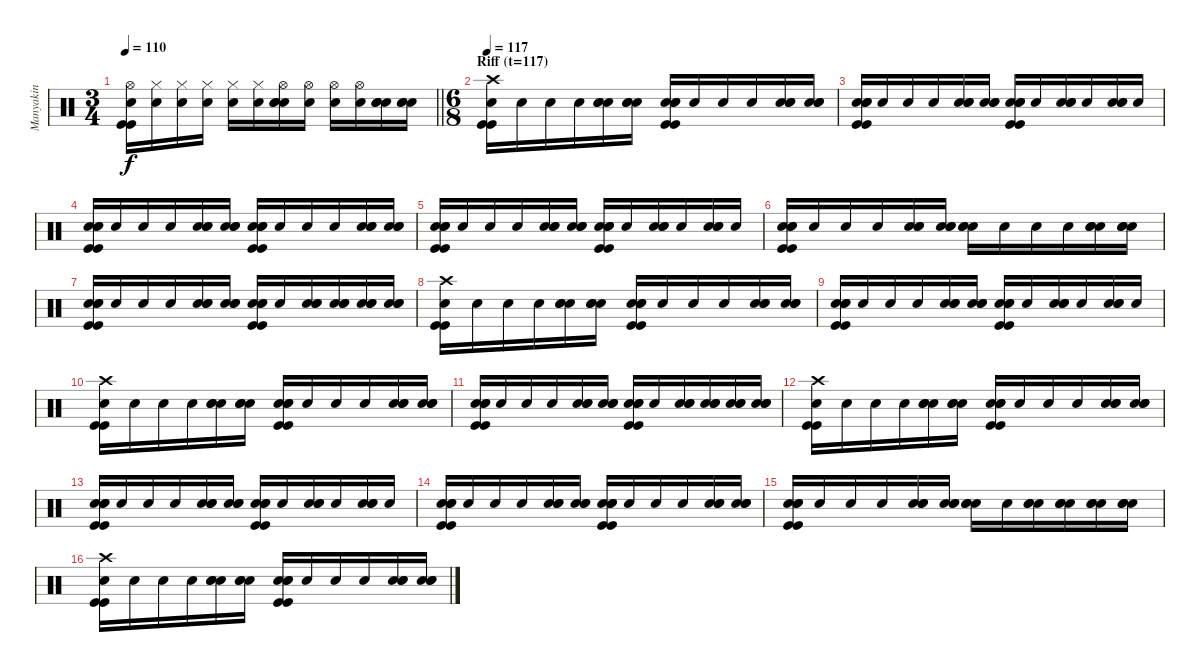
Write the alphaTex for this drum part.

\track ("Manyakin" "Manyakin") {instrument percussion}
\staff {score}
\articulation defaults
\ts (3 4)
\tempo 110
\clef neutral
\barLineRight lightlight
\ks c
("Hi-Hat (open)" "Kick (hit)" "Kick (hit)" "Snare (hit)"{x}).16{dy f} ("Hi-Hat (closed)" "Snare (hit)"{x}).16 ("Hi-Hat (closed)" "Snare (hit)"{x}).16 ("Hi-Hat (closed)" "Snare (hit)"{x}).16 ("Hi-Hat (closed)" "Snare (hit)"{x}).16 ("Hi-Hat (closed)" "Snare (hit)"{x}).16 ("Hi-Hat (open)" "Electric Snare (hit)" "Electric Snare (hit)" "Snare (hit)"{x}).16 ("Hi-Hat (open)" "Snare (hit)"{x}).16 ("Hi-Hat (open)" "Snare (hit)"{x}).16 ("Hi-Hat (open)" "Snare (hit)"{x}).16 ("Electric Snare (hit)" "Electric Snare (hit)" "Snare (hit)"{x}).16 ("Electric Snare (hit)" "Electric Snare (hit)" "Snare (hit)"{x}).16 |
\ts (6 8)
\section ("" "Riff (t=117)")
\tempo 117
("Crash high (hit)" "Kick (hit)" "Kick (hit)" "Snare (hit)"{x}).16 "Snare (hit)"{x}.16 "Snare (hit)"{x}.16 "Snare (hit)"{x}.16 ("Electric Snare (hit)" "Electric Snare (hit)" "Snare (hit)"{x}).16 ("Electric Snare (hit)" "Electric Snare (hit)" "Snare (hit)"{x}).16 ("Kick (hit)" "Kick (hit)" "Electric Snare (hit)" "Electric Snare (hit)" "Snare (hit)"{x}).16 "Snare (hit)"{x}.16 "Snare (hit)"{x}.16 "Snare (hit)"{x}.16 ("Electric Snare (hit)" "Electric Snare (hit)" "Snare (hit)"{x}).16 ("Electric Snare (hit)" "Electric Snare (hit)" "Snare (hit)"{x}).16 |
("Kick (hit)" "Kick (hit)" "Electric Snare (hit)" "Electric Snare (hit)" "Snare (hit)"{x}).16 "Snare (hit)"{x}.16 "Snare (hit)"{x}.16 "Snare (hit)"{x}.16 ("Electric Snare (hit)" "Electric Snare (hit)" "Snare (hit)"{x}).16 ("Electric Snare (hit)" "Electric Snare (hit)" "Snare (hit)"{x}).16 ("Kick (hit)" "Kick (hit)" "Electric Snare (hit)" "Electric Snare (hit)" "Snare (hit)"{x}).16 "Snare (hit)"{x}.16 ("Electric Snare (hit)" "Electric Snare (hit)" "Snare (hit)"{x}).16 "Snare (hit)"{x}.16 ("Electric Snare (hit)" "Electric Snare (hit)" "Snare (hit)"{x}).16 "Snare (hit)"{x}.16 |
("Kick (hit)" "Kick (hit)" "Electric Snare (hit)" "Electric Snare (hit)" "Snare (hit)"{x}).16 "Snare (hit)"{x}.16 "Snare (hit)"{x}.16 "Snare (hit)"{x}.16 ("Electric Snare (hit)" "Electric Snare (hit)" "Snare (hit)"{x}).16 ("Electric Snare (hit)" "Electric Snare (hit)" "Snare (hit)"{x}).16 ("Kick (hit)" "Kick (hit)" "Electric Snare (hit)" "Electric Snare (hit)" "Snare (hit)"{x}).16 "Snare (hit)"{x}.16 "Snare (hit)"{x}.16 "Snare (hit)"{x}.16 ("Electric Snare (hit)" "Electric Snare (hit)" "Snare (hit)"{x}).16 ("Electric Snare (hit)" "Electric Snare (hit)" "Snare (hit)"{x}).16 |
("Kick (hit)" "Kick (hit)" "Electric Snare (hit)" "Electric Snare (hit)" "Snare (hit)"{x}).16 "Snare (hit)"{x}.16 "Snare (hit)"{x}.16 "Snare (hit)"{x}.16 ("Electric Snare (hit)" "Electric Snare (hit)" "Snare (hit)"{x}).16 ("Electric Snare (hit)" "Electric Snare (hit)" "Snare (hit)"{x}).16 ("Kick (hit)" "Kick (hit)" "Electric Snare (hit)" "Electric Snare (hit)" "Snare (hit)"{x}).16 "Snare (hit)"{x}.16 ("Electric Snare (hit)" "Electric Snare (hit)" "Snare (hit)"{x}).16 "Snare (hit)"{x}.16 ("Electric Snare (hit)" "Electric Snare (hit)" "Snare (hit)"{x}).16 "Snare (hit)"{x}.16 |
("Kick (hit)" "Kick (hit)" "Electric Snare (hit)" "Electric Snare (hit)" "Snare (hit)"{x}).16 "Snare (hit)"{x}.16 "Snare (hit)"{x}.16 "Snare (hit)"{x}.16 ("Electric Snare (hit)" "Electric Snare (hit)" "Snare (hit)"{x}).16 ("Electric Snare (hit)" "Electric Snare (hit)" "Snare (hit)"{x}).16 ("Electric Snare (hit)" "Electric Snare (hit)" "Snare (hit)"{x}).16 "Snare (hit)"{x}.16 "Snare (hit)"{x}.16 "Snare (hit)"{x}.16 ("Electric Snare (hit)" "Electric Snare (hit)" "Snare (hit)"{x}).16 ("Electric Snare (hit)" "Electric Snare (hit)" "Snare (hit)"{x}).16 |
("Kick (hit)" "Kick (hit)" "Electric Snare (hit)" "Electric Snare (hit)" "Snare (hit)"{x}).16 "Snare (hit)"{x}.16 "Snare (hit)"{x}.16 "Snare (hit)"{x}.16 ("Electric Snare (hit)" "Electric Snare (hit)" "Snare (hit)"{x}).16 ("Electric Snare (hit)" "Electric Snare (hit)" "Snare (hit)"{x}).16 ("Kick (hit)" "Kick (hit)" "Electric Snare (hit)" "Electric Snare (hit)" "Snare (hit)"{x}).16 "Snare (hit)"{x}.16 ("Electric Snare (hit)" "Electric Snare (hit)" "Snare (hit)"{x}).16 ("Electric Snare (hit)" "Electric Snare (hit)" "Snare (hit)"{x}).16 ("Electric Snare (hit)" "Electric Snare (hit)" "Snare (hit)"{x}).16 ("Electric Snare (hit)" "Electric Snare (hit)" "Snare (hit)"{x}).16 |
("Crash high (hit)" "Kick (hit)" "Kick (hit)" "Snare (hit)"{x}).16 "Snare (hit)"{x}.16 "Snare (hit)"{x}.16 "Snare (hit)"{x}.16 ("Electric Snare (hit)" "Electric Snare (hit)" "Snare (hit)"{x}).16 ("Electric Snare (hit)" "Electric Snare (hit)" "Snare (hit)"{x}).16 ("Kick (hit)" "Kick (hit)" "Electric Snare (hit)" "Electric Snare (hit)" "Snare (hit)"{x}).16 "Snare (hit)"{x}.16 "Snare (hit)"{x}.16 "Snare (hit)"{x}.16 ("Electric Snare (hit)" "Electric Snare (hit)" "Snare (hit)"{x}).16 ("Electric Snare (hit)" "Electric Snare (hit)" "Snare (hit)"{x}).16 |
("Kick (hit)" "Kick (hit)" "Electric Snare (hit)" "Electric Snare (hit)" "Snare (hit)"{x}).16 "Snare (hit)"{x}.16 "Snare (hit)"{x}.16 "Snare (hit)"{x}.16 ("Electric Snare (hit)" "Electric Snare (hit)" "Snare (hit)"{x}).16 ("Electric Snare (hit)" "Electric Snare (hit)" "Snare (hit)"{x}).16 ("Kick (hit)" "Kick (hit)" "Electric Snare (hit)" "Electric Snare (hit)" "Snare (hit)"{x}).16 "Snare (hit)"{x}.16 ("Electric Snare (hit)" "Electric Snare (hit)" "Snare (hit)"{x}).16 "Snare (hit)"{x}.16 ("Electric Snare (hit)" "Electric Snare (hit)" "Snare (hit)"{x}).16 "Snare (hit)"{x}.16 |
("Crash high (hit)" "Kick (hit)" "Kick (hit)" "Snare (hit)"{x}).16 "Snare (hit)"{x}.16 "Snare (hit)"{x}.16 "Snare (hit)"{x}.16 ("Electric Snare (hit)" "Electric Snare (hit)" "Snare (hit)"{x}).16 ("Electric Snare (hit)" "Electric Snare (hit)" "Snare (hit)"{x}).16 ("Kick (hit)" "Kick (hit)" "Electric Snare (hit)" "Electric Snare (hit)" "Snare (hit)"{x}).16 "Snare (hit)"{x}.16 "Snare (hit)"{x}.16 "Snare (hit)"{x}.16 ("Electric Snare (hit)" "Electric Snare (hit)" "Snare (hit)"{x}).16 ("Electric Snare (hit)" "Electric Snare (hit)" "Snare (hit)"{x}).16 |
("Kick (hit)" "Kick (hit)" "Electric Snare (hit)" "Electric Snare (hit)" "Snare (hit)"{x}).16 "Snare (hit)"{x}.16 "Snare (hit)"{x}.16 "Snare (hit)"{x}.16 ("Electric Snare (hit)" "Electric Snare (hit)" "Snare (hit)"{x}).16 ("Electric Snare (hit)" "Electric Snare (hit)" "Snare (hit)"{x}).16 ("Kick (hit)" "Kick (hit)" "Electric Snare (hit)" "Electric Snare (hit)" "Snare (hit)"{x}).16 "Snare (hit)"{x}.16 ("Electric Snare (hit)" "Electric Snare (hit)" "Snare (hit)"{x}).16 ("Electric Snare (hit)" "Electric Snare (hit)" "Snare (hit)"{x}).16 ("Electric Snare (hit)" "Electric Snare (hit)" "Snare (hit)"{x}).16 ("Electric Snare (hit)" "Electric Snare (hit)" "Snare (hit)"{x}).16 |
("Crash high (hit)" "Kick (hit)" "Kick (hit)" "Snare (hit)"{x}).16 "Snare (hit)"{x}.16 "Snare (hit)"{x}.16 "Snare (hit)"{x}.16 ("Electric Snare (hit)" "Electric Snare (hit)" "Snare (hit)"{x}).16 ("Electric Snare (hit)" "Electric Snare (hit)" "Snare (hit)"{x}).16 ("Kick (hit)" "Kick (hit)" "Electric Snare (hit)" "Electric Snare (hit)" "Snare (hit)"{x}).16 "Snare (hit)"{x}.16 "Snare (hit)"{x}.16 "Snare (hit)"{x}.16 ("Electric Snare (hit)" "Electric Snare (hit)" "Snare (hit)"{x}).16 ("Electric Snare (hit)" "Electric Snare (hit)" "Snare (hit)"{x}).16 |
("Kick (hit)" "Kick (hit)" "Electric Snare (hit)" "Electric Snare (hit)" "Snare (hit)"{x}).16 "Snare (hit)"{x}.16 "Snare (hit)"{x}.16 "Snare (hit)"{x}.16 ("Electric Snare (hit)" "Electric Snare (hit)" "Snare (hit)"{x}).16 ("Electric Snare (hit)" "Electric Snare (hit)" "Snare (hit)"{x}).16 ("Kick (hit)" "Kick (hit)" "Electric Snare (hit)" "Electric Snare (hit)" "Snare (hit)"{x}).16 "Snare (hit)"{x}.16 ("Electric Snare (hit)" "Electric Snare (hit)" "Snare (hit)"{x}).16 "Snare (hit)"{x}.16 ("Electric Snare (hit)" "Electric Snare (hit)" "Snare (hit)"{x}).16 "Snare (hit)"{x}.16 |
("Kick (hit)" "Kick (hit)" "Electric Snare (hit)" "Electric Snare (hit)" "Snare (hit)"{x}).16 "Snare (hit)"{x}.16 "Snare (hit)"{x}.16 "Snare (hit)"{x}.16 ("Electric Snare (hit)" "Electric Snare (hit)" "Snare (hit)"{x}).16 ("Electric Snare (hit)" "Electric Snare (hit)" "Snare (hit)"{x}).16 ("Kick (hit)" "Kick (hit)" "Electric Snare (hit)" "Electric Snare (hit)" "Snare (hit)"{x}).16 "Snare (hit)"{x}.16 "Snare (hit)"{x}.16 "Snare (hit)"{x}.16 ("Electric Snare (hit)" "Electric Snare (hit)" "Snare (hit)"{x}).16 ("Electric Snare (hit)" "Electric Snare (hit)" "Snare (hit)"{x}).16 |
("Kick (hit)" "Kick (hit)" "Electric Snare (hit)" "Electric Snare (hit)" "Snare (hit)"{x}).16 "Snare (hit)"{x}.16 "Snare (hit)"{x}.16 "Snare (hit)"{x}.16 ("Electric Snare (hit)" "Electric Snare (hit)" "Snare (hit)"{x}).16 ("Electric Snare (hit)" "Electric Snare (hit)" "Snare (hit)"{x}).16 ("Electric Snare (hit)" "Electric Snare (hit)" "Snare (hit)"{x}).16 "Snare (hit)"{x}.16 ("Electric Snare (hit)" "Electric Snare (hit)" "Snare (hit)"{x}).16 ("Electric Snare (hit)" "Electric Snare (hit)" "Snare (hit)"{x}).16 ("Electric Snare (hit)" "Electric Snare (hit)" "Snare (hit)"{x}).16 ("Electric Snare (hit)" "Electric Snare (hit)" "Snare (hit)"{x}).16 |
("Crash high (hit)" "Kick (hit)" "Kick (hit)" "Snare (hit)"{x}).16 "Snare (hit)"{x}.16 "Snare (hit)"{x}.16 "Snare (hit)"{x}.16 ("Electric Snare (hit)" "Electric Snare (hit)" "Snare (hit)"{x}).16 ("Electric Snare (hit)" "Electric Snare (hit)" "Snare (hit)"{x}).16 ("Kick (hit)" "Kick (hit)" "Electric Snare (hit)" "Electric Snare (hit)" "Snare (hit)"{x}).16 "Snare (hit)"{x}.16 "Snare (hit)"{x}.16 "Snare (hit)"{x}.16 ("Electric Snare (hit)" "Electric Snare (hit)" "Snare (hit)"{x}).16 ("Electric Snare (hit)" "Electric Snare (hit)" "Snare (hit)"{x}).16
